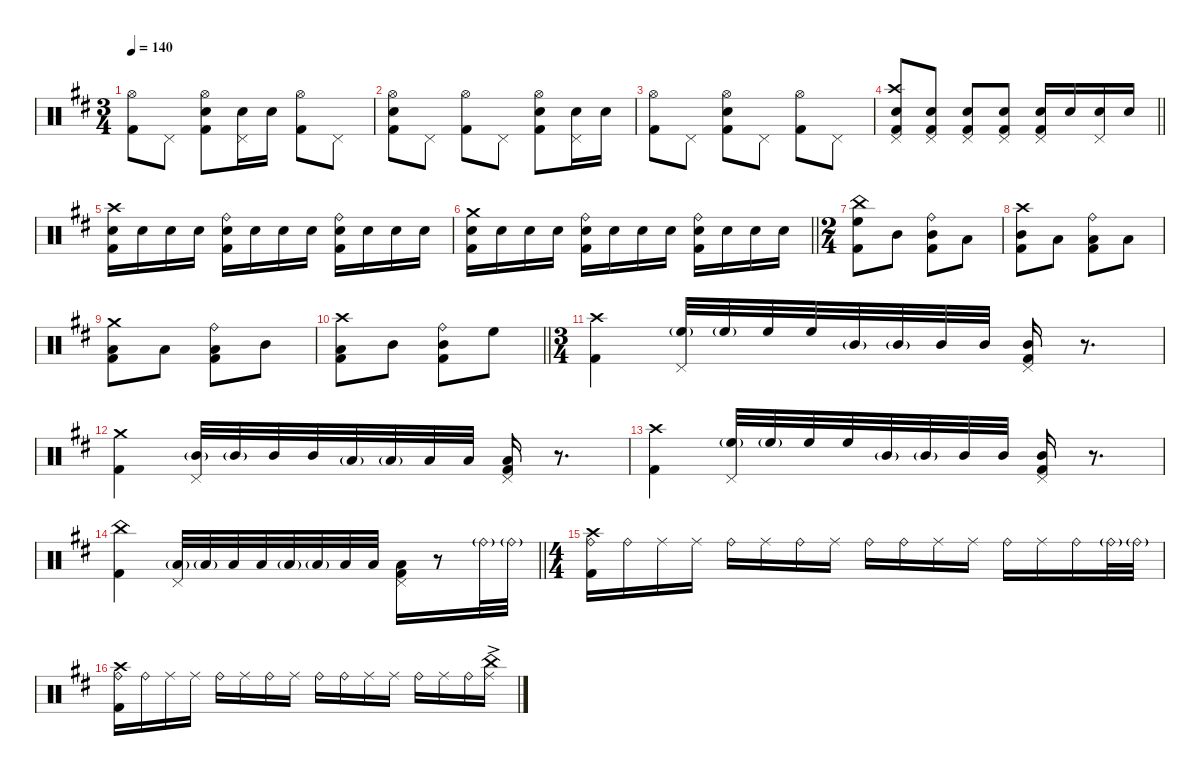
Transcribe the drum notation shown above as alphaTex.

\defaultSystemsLayout 4
\hideDynamics
\bracketExtendMode nobrackets
\singleTrackTrackNamePolicy hidden
\multiTrackTrackNamePolicy hidden
\otherSystemsTrackNameOrientation horizontal
\track ("Percussions" "drm.") {instrument percussion}
\staff {score}
\articulation defaults
\ts (3 4)
\tempo 140
\clef neutral
\ks d
("Hi-Hat (open)"{acc forcenatural} "Kick (hit) 2"{acc forcenatural}).8{dy f beam Down} "Pedal Hi-Hat (hit)"{acc forcenatural}.8{beam Down} ("Hi-Hat (open)"{acc forcenatural} "Snare (hit) 2"{acc forcenatural} "Kick (hit) 2"{acc forcenatural}).8{beam Down} ("Pedal Hi-Hat (hit)"{acc forcenatural} "Snare (hit) 2"{acc forcenatural}).16{beam Down} "Snare (hit) 2"{acc forcenatural}.16{beam Down} ("Hi-Hat (open)"{acc forcenatural} "Kick (hit) 2"{acc forcenatural}).8{beam Down} "Pedal Hi-Hat (hit)"{acc forcenatural}.8{beam Down} |
("Hi-Hat (open)"{acc forcenatural} "Snare (hit) 2"{acc forcenatural} "Kick (hit) 2"{acc forcenatural}).8{beam Down} "Pedal Hi-Hat (hit)"{acc forcenatural}.8{beam Down} ("Hi-Hat (open)"{acc forcenatural} "Kick (hit) 2"{acc forcenatural}).8{beam Down} "Pedal Hi-Hat (hit)"{acc forcenatural}.8{beam Down} ("Hi-Hat (open)"{acc forcenatural} "Snare (hit) 2"{acc forcenatural} "Kick (hit) 2"{acc forcenatural}).8{beam Down} ("Pedal Hi-Hat (hit)"{acc forcenatural} "Snare (hit) 2"{acc forcenatural}).16{beam Down} "Snare (hit) 2"{acc forcenatural}.16{beam Down} |
("Hi-Hat (open)"{acc forcenatural} "Kick (hit) 2"{acc forcenatural}).8{beam Down} "Pedal Hi-Hat (hit)"{acc forcenatural}.8{beam Down} ("Hi-Hat (open)"{acc forcenatural} "Snare (hit) 2"{acc forcenatural} "Kick (hit) 2"{acc forcenatural}).8{beam Down} "Pedal Hi-Hat (hit)"{acc forcenatural}.8{beam Down} ("Hi-Hat (open)"{acc forcenatural} "Kick (hit) 2"{acc forcenatural}).8{beam Down} "Pedal Hi-Hat (hit)"{acc forcenatural}.8{beam Down} |
\barLineRight lightlight
("Pedal Hi-Hat (hit)"{acc forcenatural} "Crash high (hit)"{acc forcenatural} "Snare (hit) 2"{acc forcenatural} "Kick (hit) 2"{acc forcenatural}).8{beam Up} ("Pedal Hi-Hat (hit)"{acc forcenatural} "Snare (hit) 2"{acc forcenatural} "Kick (hit) 2"{acc forcenatural}).8{beam Up} ("Pedal Hi-Hat (hit)"{acc forcenatural} "Snare (hit) 2"{acc forcenatural} "Kick (hit) 2"{acc forcenatural}).8{beam Up} ("Pedal Hi-Hat (hit)"{acc forcenatural} "Snare (hit) 2"{acc forcenatural} "Kick (hit) 2"{acc forcenatural}).8{beam Up} ("Pedal Hi-Hat (hit)"{acc forcenatural} "Snare (hit) 2"{acc forcenatural} "Kick (hit) 2"{acc forcenatural}).16{beam Up} "Snare (hit) 2"{acc forcenatural}.16{beam Up} ("Pedal Hi-Hat (hit)"{acc forcenatural} "Snare (hit) 2"{acc forcenatural}).16{beam Up} "Snare (hit) 2"{acc forcenatural}.16{beam Up} |
("Crash high (hit)"{acc forcenatural} "Snare (hit) 2"{acc forcenatural} "Kick (hit) 2"{acc forcenatural}).16{beam Down} "Snare (hit) 2"{acc forcenatural}.16{beam Down} "Snare (hit) 2"{acc forcenatural}.16{beam Down} "Snare (hit) 2"{acc forcenatural}.16{beam Down} ("Ride (bell)"{acc forcenatural} "Snare (hit) 2"{acc forcenatural} "Kick (hit) 2"{acc forcenatural}).16{beam Down} "Snare (hit) 2"{acc forcenatural}.16{beam Down} "Snare (hit) 2"{acc forcenatural}.16{beam Down} "Snare (hit) 2"{acc forcenatural}.16{beam Down} ("Ride (bell)"{acc forcenatural} "Snare (hit) 2"{acc forcenatural} "Kick (hit) 2"{acc forcenatural}).16{beam Down} "Snare (hit) 2"{acc forcenatural}.16{beam Down} "Snare (hit) 2"{acc forcenatural}.16{beam Down} "Snare (hit) 2"{acc forcenatural}.16{beam Down} |
\barLineRight lightlight
("Crash medium (hit)"{acc forcenatural} "Snare (hit) 2"{acc forcenatural} "Kick (hit) 2"{acc forcenatural}).16{beam Down} "Snare (hit) 2"{acc forcenatural}.16{beam Down} "Snare (hit) 2"{acc forcenatural}.16{beam Down} "Snare (hit) 2"{acc forcenatural}.16{beam Down} ("Ride (bell)"{acc forcenatural} "Snare (hit) 2"{acc forcenatural} "Kick (hit) 2"{acc forcenatural}).16{beam Down} "Snare (hit) 2"{acc forcenatural}.16{beam Down} "Snare (hit) 2"{acc forcenatural}.16{beam Down} "Snare (hit) 2"{acc forcenatural}.16{beam Down} ("Ride (bell)"{acc forcenatural} "Snare (hit) 2"{acc forcenatural} "Kick (hit) 2"{acc forcenatural}).16{beam Down} "Snare (hit) 2"{acc forcenatural}.16{beam Down} "Snare (hit) 2"{acc forcenatural}.16{beam Down} "Snare (hit) 2"{acc forcenatural}.16{beam Down} |
\ts (2 4)
("China (hit)"{acc forcenatural} "High Floor Tom (hit)"{acc forcenatural} "Kick (hit) 2"{acc forcenatural}).8{beam Down} "Mid Tom (hit)"{acc forcenatural}.8{beam Down} ("Ride (bell)"{acc forcenatural} "Mid Tom (hit)"{acc forcenatural} "Kick (hit) 2"{acc forcenatural}).8{beam Down} "Low Tom (hit)"{acc forcenatural}.8{beam Down} |
("Crash high (hit)"{acc forcenatural} "Mid Tom (hit)"{acc forcenatural} "Kick (hit) 2"{acc forcenatural}).8{beam Down} "Low Tom (hit)"{acc forcenatural}.8{beam Down} ("Ride (bell)"{acc forcenatural} "Low Tom (hit)"{acc forcenatural} "Kick (hit) 2"{acc forcenatural}).8{beam Down} "Low Floor Tom (hit)"{acc forcenatural}.8{beam Down} |
("Crash medium (hit)"{acc forcenatural} "Low Floor Tom (hit)"{acc forcenatural} "Kick (hit) 2"{acc forcenatural}).8{beam Down} "Low Tom (hit)"{acc forcenatural}.8{beam Down} ("Ride (bell)"{acc forcenatural} "Low Tom (hit)"{acc forcenatural} "Kick (hit) 2"{acc forcenatural}).8{beam Down} "Mid Tom (hit)"{acc forcenatural}.8{beam Down} |
\barLineRight lightlight
("Crash high (hit)"{acc forcenatural} "Low Tom (hit)"{acc forcenatural} "Kick (hit) 2"{acc forcenatural}).8{beam Down} "Mid Tom (hit)"{acc forcenatural}.8{beam Down} ("Ride (bell)"{acc forcenatural} "Mid Tom (hit)"{acc forcenatural} "Kick (hit) 2"{acc forcenatural}).8{beam Down} "High Floor Tom (hit)"{acc forcenatural}.8{beam Down} |
\ts (3 4)
("Crash high (hit)"{acc forcenatural} "Kick (hit) 2"{acc forcenatural}).4{beam Down} ("Pedal Hi-Hat (hit)"{acc forcenatural} "High Floor Tom (hit)"{g acc forcenatural}).32{beam Up} "High Floor Tom (hit)"{g acc forcenatural}.32{beam Up} "High Floor Tom (hit)"{acc forcenatural}.32{beam Up} "High Floor Tom (hit)"{acc forcenatural}.32{beam Up} "Mid Tom (hit)"{g acc forcenatural}.32{beam Up} "Mid Tom (hit)"{g acc forcenatural}.32{beam Up} "Mid Tom (hit)"{acc forcenatural}.32{beam Up} "Mid Tom (hit)"{acc forcenatural}.32{beam Up} ("Pedal Hi-Hat (hit)"{acc forcenatural} "Mid Tom (hit)"{acc forcenatural} "Kick (hit) 2"{acc forcenatural}).16{beam Up} r.8{d beam Up} |
("Crash medium (hit)"{acc forcenatural} "Kick (hit) 2"{acc forcenatural}).4{beam Down} ("Pedal Hi-Hat (hit)"{acc forcenatural} "Mid Tom (hit)"{g acc forcenatural}).32{beam Up} "Mid Tom (hit)"{g acc forcenatural}.32{beam Up} "Mid Tom (hit)"{acc forcenatural}.32{beam Up} "Mid Tom (hit)"{acc forcenatural}.32{beam Up} "Low Tom (hit)"{g acc forcenatural}.32{beam Up} "Low Tom (hit)"{g acc forcenatural}.32{beam Up} "Low Tom (hit)"{acc forcenatural}.32{beam Up} "Low Tom (hit)"{acc forcenatural}.32{beam Up} ("Pedal Hi-Hat (hit)"{acc forcenatural} "Low Tom (hit)"{acc forcenatural} "Kick (hit) 2"{acc forcenatural}).16{beam Up} r.8{d beam Up} |
("Crash high (hit)"{acc forcenatural} "Kick (hit) 2"{acc forcenatural}).4{beam Down} ("Pedal Hi-Hat (hit)"{acc forcenatural} "High Floor Tom (hit)"{g acc forcenatural}).32{beam Up} "High Floor Tom (hit)"{g acc forcenatural}.32{beam Up} "High Floor Tom (hit)"{acc forcenatural}.32{beam Up} "High Floor Tom (hit)"{acc forcenatural}.32{beam Up} "Mid Tom (hit)"{g acc forcenatural}.32{beam Up} "Mid Tom (hit)"{g acc forcenatural}.32{beam Up} "Mid Tom (hit)"{acc forcenatural}.32{beam Up} "Mid Tom (hit)"{acc forcenatural}.32{beam Up} ("Pedal Hi-Hat (hit)"{acc forcenatural} "Mid Tom (hit)"{acc forcenatural} "Kick (hit) 2"{acc forcenatural}).16{beam Up} r.8{d beam Up} |
\barLineRight lightlight
("China (hit)"{acc forcenatural} "Kick (hit) 2"{acc forcenatural}).4{beam Down} ("Pedal Hi-Hat (hit)"{acc forcenatural} "Low Tom (hit)"{g acc forcenatural}).32{beam Up} "Low Tom (hit)"{g acc forcenatural}.32{beam Up} "Low Tom (hit)"{acc forcenatural}.32{beam Up} "Low Tom (hit)"{acc forcenatural}.32{beam Up} "Low Floor Tom (hit)"{g acc forcenatural}.32{beam Up} "Low Floor Tom (hit)"{g acc forcenatural}.32{beam Up} "Low Floor Tom (hit)"{acc forcenatural}.32{beam Up} "Low Floor Tom (hit)"{acc forcenatural}.32{beam Up} ("Pedal Hi-Hat (hit)"{acc forcenatural} "Low Floor Tom (hit)"{acc forcenatural} "Kick (hit) 2"{acc forcenatural}).16{beam Down} r.8{beam Down} "Ride (bell)"{g acc forcenatural}.32{beam Down} "Ride (bell)"{g acc forcenatural}.32{beam Down} |
\ts (4 4)
("Crash high (hit)"{acc forcenatural} "Ride (bell)"{acc forcenatural} "Kick (hit) 2"{acc forcenatural}).16{beam Down} "Ride (bell)"{acc forcenatural}.16{beam Down} "Ride (middle)"{acc forcenatural}.16{beam Down} "Ride (middle)"{acc forcenatural}.16{beam Down} "Ride (bell)"{acc forcenatural}.16{beam Down} "Ride (middle)"{acc forcenatural}.16{beam Down} "Ride (bell)"{acc forcenatural}.16{beam Down} "Ride (middle)"{acc forcenatural}.16{beam Down} "Ride (bell)"{acc forcenatural}.16{beam Down} "Ride (bell)"{acc forcenatural}.16{beam Down} "Ride (middle)"{acc forcenatural}.16{beam Down} "Ride (middle)"{acc forcenatural}.16{beam Down} "Ride (bell)"{acc forcenatural}.16{beam Down} "Ride (middle)"{acc forcenatural}.16{beam Down} "Ride (bell)"{acc forcenatural}.16{beam Down} "Ride (bell)"{g acc forcenatural}.32{beam Down} "Ride (bell)"{g acc forcenatural}.32{beam Down} |
("Crash high (hit)"{acc forcenatural} "Ride (bell)"{acc forcenatural} "Kick (hit) 2"{acc forcenatural}).16{beam Down} "Ride (bell)"{acc forcenatural}.16{beam Down} "Ride (middle)"{acc forcenatural}.16{beam Down} "Ride (middle)"{acc forcenatural}.16{beam Down} "Ride (bell)"{acc forcenatural}.16{beam Down} "Ride (middle)"{acc forcenatural}.16{beam Down} "Ride (bell)"{acc forcenatural}.16{beam Down} "Ride (middle)"{acc forcenatural}.16{beam Down} "Ride (bell)"{acc forcenatural}.16{beam Down} "Ride (bell)"{acc forcenatural}.16{beam Down} "Ride (middle)"{acc forcenatural}.16{beam Down} "Ride (middle)"{acc forcenatural}.16{beam Down} "Ride (bell)"{acc forcenatural}.16{beam Down} "Ride (middle)"{acc forcenatural}.16{beam Down} "Ride (bell)"{acc forcenatural}.16{beam Down} ("China (hit)"{ac acc forcenatural} "Ride (middle)"{ac acc forcenatural}).16{beam Down}
